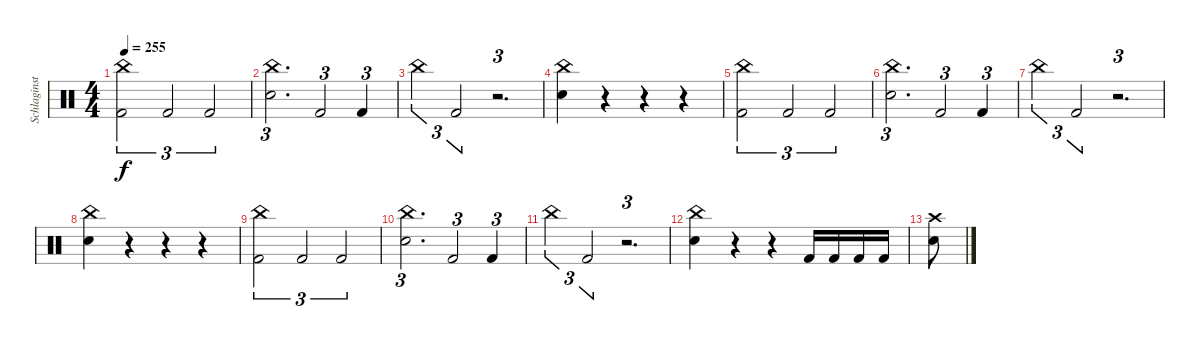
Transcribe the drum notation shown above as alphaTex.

\track ("Schlaginstrumente - Auswahl" "Schlaginst") {instrument percussion}
\staff {score}
\articulation defaults
\ts (4 4)
\tempo 255
\clef neutral
\ks c
("China (hit)" "Kick (hit) 2").2{tu (3 2) dy f} "Kick (hit) 2".2{tu (3 2)} "Kick (hit) 2".2{tu (3 2)} |
("China (hit)" "Electric Snare (hit)").2{d tu (3 2)} "Kick (hit) 2".2{tu (3 2)} "Kick (hit) 2".4{tu (3 2)} |
"China (hit)".4{tu (3 2)} "Kick (hit) 2".2{tu (3 2)} r.2{d tu (3 2)} |
("China (hit)" "Electric Snare (hit)").4 r.4 r.4 r.4 |
("China (hit)" "Kick (hit) 2").2{tu (3 2)} "Kick (hit) 2".2{tu (3 2)} "Kick (hit) 2".2{tu (3 2)} |
("China (hit)" "Electric Snare (hit)").2{d tu (3 2)} "Kick (hit) 2".2{tu (3 2)} "Kick (hit) 2".4{tu (3 2)} |
"China (hit)".4{tu (3 2)} "Kick (hit) 2".2{tu (3 2)} r.2{d tu (3 2)} |
("China (hit)" "Electric Snare (hit)").4 r.4 r.4 r.4 |
("China (hit)" "Kick (hit) 2").2{tu (3 2)} "Kick (hit) 2".2{tu (3 2)} "Kick (hit) 2".2{tu (3 2)} |
("China (hit)" "Electric Snare (hit)").2{d tu (3 2)} "Kick (hit) 2".2{tu (3 2)} "Kick (hit) 2".4{tu (3 2)} |
"China (hit)".4{tu (3 2)} "Kick (hit) 2".2{tu (3 2)} r.2{d tu (3 2)} |
("China (hit)" "Electric Snare (hit)").4 r.4 r.4 "Kick (hit) 2".16 "Kick (hit) 2".16 "Kick (hit) 2".16 "Kick (hit) 2".16 |
("Crash high (hit)" "Electric Snare (hit)").8
